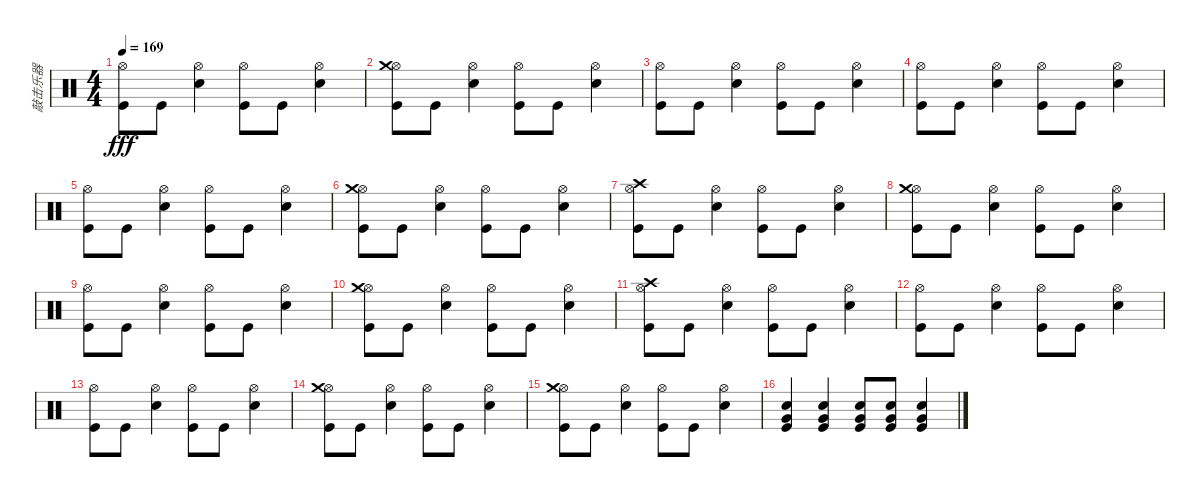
\track ("敲击乐器" "敲击乐器") {instrument percussion}
\staff {score}
\articulation defaults
\ts (4 4)
\tempo 169
\clef neutral
\ks c
("Hi-Hat (open)" "Kick (hit)").8{dy fff} "Kick (hit)".8 ("Electric Snare (hit)" "Hi-Hat (open)").4 ("Hi-Hat (open)" "Kick (hit)").8 "Kick (hit)".8 ("Electric Snare (hit)" "Hi-Hat (open)").4 |
("Hi-Hat (open)" "Crash medium (hit)" "Kick (hit)").8 "Kick (hit)".8 ("Electric Snare (hit)" "Hi-Hat (open)").4 ("Hi-Hat (open)" "Kick (hit)").8 "Kick (hit)".8 ("Hi-Hat (open)" "Electric Snare (hit)").4 |
("Hi-Hat (open)" "Kick (hit)").8 "Kick (hit)".8 ("Electric Snare (hit)" "Hi-Hat (open)").4 ("Hi-Hat (open)" "Kick (hit)").8 "Kick (hit)".8 ("Electric Snare (hit)" "Hi-Hat (open)").4 |
("Hi-Hat (open)" "Kick (hit)").8 "Kick (hit)".8 ("Electric Snare (hit)" "Hi-Hat (open)").4 ("Hi-Hat (open)" "Kick (hit)").8 "Kick (hit)".8 ("Electric Snare (hit)" "Hi-Hat (open)").4 |
("Hi-Hat (open)" "Kick (hit)").8 "Kick (hit)".8 ("Electric Snare (hit)" "Hi-Hat (open)").4 ("Hi-Hat (open)" "Kick (hit)").8 "Kick (hit)".8 ("Electric Snare (hit)" "Hi-Hat (open)").4 |
("Hi-Hat (open)" "Crash medium (hit)" "Kick (hit)").8 "Kick (hit)".8 ("Electric Snare (hit)" "Hi-Hat (open)").4 ("Hi-Hat (open)" "Kick (hit)").8 "Kick (hit)".8 ("Electric Snare (hit)" "Hi-Hat (open)").4 |
("Hi-Hat (open)" "Crash high (hit)" "Kick (hit)").8 "Kick (hit)".8 ("Electric Snare (hit)" "Hi-Hat (open)").4 ("Hi-Hat (open)" "Kick (hit)").8 "Kick (hit)".8 ("Electric Snare (hit)" "Hi-Hat (open)").4 |
("Hi-Hat (open)" "Crash medium (hit)" "Kick (hit)").8 "Kick (hit)".8 ("Electric Snare (hit)" "Hi-Hat (open)").4 ("Hi-Hat (open)" "Kick (hit)").8 "Kick (hit)".8 ("Electric Snare (hit)" "Hi-Hat (open)").4 |
("Hi-Hat (open)" "Kick (hit)").8 "Kick (hit)".8 ("Electric Snare (hit)" "Hi-Hat (open)").4 ("Hi-Hat (open)" "Kick (hit)").8 "Kick (hit)".8 ("Electric Snare (hit)" "Hi-Hat (open)").4 |
("Hi-Hat (open)" "Crash medium (hit)" "Kick (hit)").8 "Kick (hit)".8 ("Electric Snare (hit)" "Hi-Hat (open)").4 ("Hi-Hat (open)" "Kick (hit)").8 "Kick (hit)".8 ("Electric Snare (hit)" "Hi-Hat (open)").4 |
("Hi-Hat (open)" "Crash high (hit)" "Kick (hit)").8 "Kick (hit)".8 ("Electric Snare (hit)" "Hi-Hat (open)").4 ("Hi-Hat (open)" "Kick (hit)").8 "Kick (hit)".8 ("Electric Snare (hit)" "Hi-Hat (open)").4 |
("Hi-Hat (open)" "Kick (hit)").8 "Kick (hit)".8 ("Electric Snare (hit)" "Hi-Hat (open)").4 ("Hi-Hat (open)" "Kick (hit)").8 "Kick (hit)".8 ("Electric Snare (hit)" "Hi-Hat (open)").4 |
("Hi-Hat (open)" "Kick (hit)").8 "Kick (hit)".8 ("Electric Snare (hit)" "Hi-Hat (open)").4 ("Hi-Hat (open)" "Kick (hit)").8 "Kick (hit)".8 ("Electric Snare (hit)" "Hi-Hat (open)").4 |
("Hi-Hat (open)" "Crash medium (hit)" "Kick (hit)").8 "Kick (hit)".8 ("Electric Snare (hit)" "Hi-Hat (open)").4 ("Hi-Hat (open)" "Kick (hit)").8 "Kick (hit)".8 ("Electric Snare (hit)" "Hi-Hat (open)").4 |
("Hi-Hat (open)" "Crash medium (hit)" "Kick (hit)").8 "Kick (hit)".8 ("Electric Snare (hit)" "Hi-Hat (open)").4 ("Hi-Hat (open)" "Kick (hit)").8 "Kick (hit)".8 ("Electric Snare (hit)" "Hi-Hat (open)").4 |
("Electric Snare (hit)" "Kick (hit)" "Very Low Tom (hit)").4 ("Electric Snare (hit)" "Kick (hit)" "Very Low Tom (hit)").4 ("Electric Snare (hit)" "Kick (hit)" "Very Low Tom (hit)").8 ("Electric Snare (hit)" "Kick (hit)" "Very Low Tom (hit)").8 ("Electric Snare (hit)" "Kick (hit)" "Very Low Tom (hit)").4
